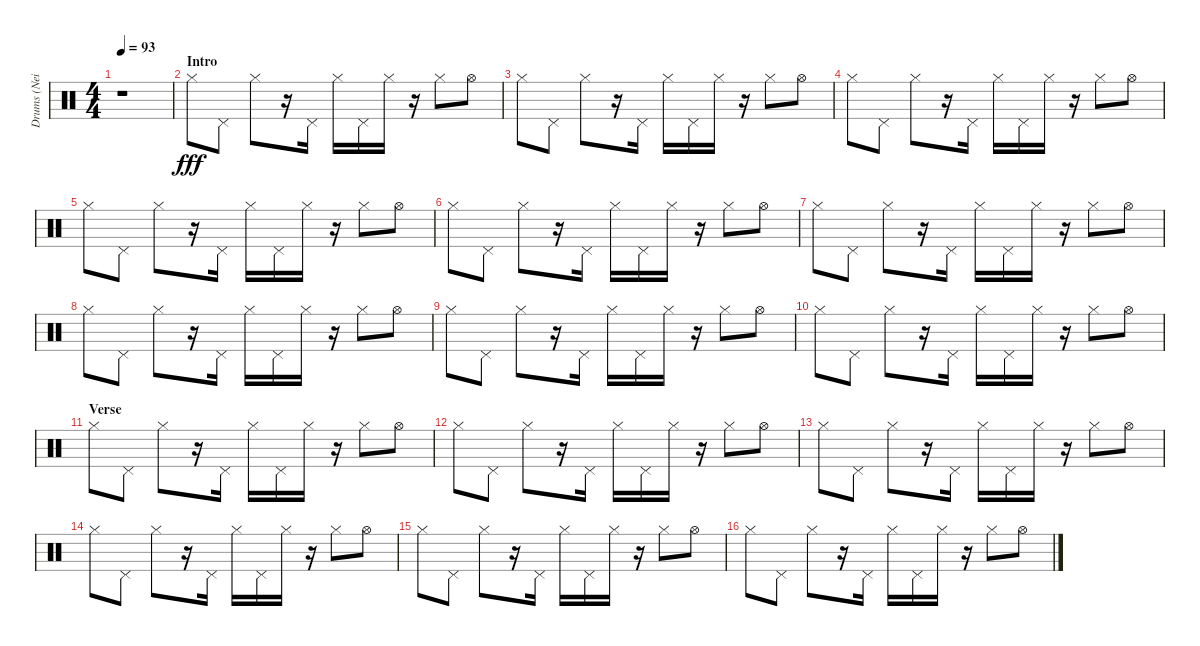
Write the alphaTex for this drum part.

\track ("Drums (Neil)" "Drums (Nei") {instrument percussion}
\staff {score}
\articulation defaults
\ts (4 4)
\tempo 93
\clef neutral
\ks c
r.1{dy fff} |
\section ("" "Intro")
"Hi-Hat (closed)".8 "Pedal Hi-Hat (hit)".8 "Hi-Hat (closed)".8 r.16 "Pedal Hi-Hat (hit)".16 "Hi-Hat (closed)".16 "Pedal Hi-Hat (hit)".16 "Hi-Hat (closed)".16 r.16 "Hi-Hat (closed)".8 "Hi-Hat (open)".8 |
"Hi-Hat (closed)".8 "Pedal Hi-Hat (hit)".8 "Hi-Hat (closed)".8 r.16 "Pedal Hi-Hat (hit)".16 "Hi-Hat (closed)".16 "Pedal Hi-Hat (hit)".16 "Hi-Hat (closed)".16 r.16 "Hi-Hat (closed)".8 "Hi-Hat (open)".8 |
"Hi-Hat (closed)".8 "Pedal Hi-Hat (hit)".8 "Hi-Hat (closed)".8 r.16 "Pedal Hi-Hat (hit)".16 "Hi-Hat (closed)".16 "Pedal Hi-Hat (hit)".16 "Hi-Hat (closed)".16 r.16 "Hi-Hat (closed)".8 "Hi-Hat (open)".8 |
"Hi-Hat (closed)".8 "Pedal Hi-Hat (hit)".8 "Hi-Hat (closed)".8 r.16 "Pedal Hi-Hat (hit)".16 "Hi-Hat (closed)".16 "Pedal Hi-Hat (hit)".16 "Hi-Hat (closed)".16 r.16 "Hi-Hat (closed)".8 "Hi-Hat (open)".8 |
"Hi-Hat (closed)".8 "Pedal Hi-Hat (hit)".8 "Hi-Hat (closed)".8 r.16 "Pedal Hi-Hat (hit)".16 "Hi-Hat (closed)".16 "Pedal Hi-Hat (hit)".16 "Hi-Hat (closed)".16 r.16 "Hi-Hat (closed)".8 "Hi-Hat (open)".8 |
"Hi-Hat (closed)".8 "Pedal Hi-Hat (hit)".8 "Hi-Hat (closed)".8 r.16 "Pedal Hi-Hat (hit)".16 "Hi-Hat (closed)".16 "Pedal Hi-Hat (hit)".16 "Hi-Hat (closed)".16 r.16 "Hi-Hat (closed)".8 "Hi-Hat (open)".8 |
"Hi-Hat (closed)".8 "Pedal Hi-Hat (hit)".8 "Hi-Hat (closed)".8 r.16 "Pedal Hi-Hat (hit)".16 "Hi-Hat (closed)".16 "Pedal Hi-Hat (hit)".16 "Hi-Hat (closed)".16 r.16 "Hi-Hat (closed)".8 "Hi-Hat (open)".8 |
"Hi-Hat (closed)".8 "Pedal Hi-Hat (hit)".8 "Hi-Hat (closed)".8 r.16 "Pedal Hi-Hat (hit)".16 "Hi-Hat (closed)".16 "Pedal Hi-Hat (hit)".16 "Hi-Hat (closed)".16 r.16 "Hi-Hat (closed)".8 "Hi-Hat (open)".8 |
"Hi-Hat (closed)".8 "Pedal Hi-Hat (hit)".8 "Hi-Hat (closed)".8 r.16 "Pedal Hi-Hat (hit)".16 "Hi-Hat (closed)".16 "Pedal Hi-Hat (hit)".16 "Hi-Hat (closed)".16 r.16 "Hi-Hat (closed)".8 "Hi-Hat (open)".8 |
\section ("" "Verse")
"Hi-Hat (closed)".8 "Pedal Hi-Hat (hit)".8 "Hi-Hat (closed)".8 r.16 "Pedal Hi-Hat (hit)".16 "Hi-Hat (closed)".16 "Pedal Hi-Hat (hit)".16 "Hi-Hat (closed)".16 r.16 "Hi-Hat (closed)".8 "Hi-Hat (open)".8 |
"Hi-Hat (closed)".8 "Pedal Hi-Hat (hit)".8 "Hi-Hat (closed)".8 r.16 "Pedal Hi-Hat (hit)".16 "Hi-Hat (closed)".16 "Pedal Hi-Hat (hit)".16 "Hi-Hat (closed)".16 r.16 "Hi-Hat (closed)".8 "Hi-Hat (open)".8 |
"Hi-Hat (closed)".8 "Pedal Hi-Hat (hit)".8 "Hi-Hat (closed)".8 r.16 "Pedal Hi-Hat (hit)".16 "Hi-Hat (closed)".16 "Pedal Hi-Hat (hit)".16 "Hi-Hat (closed)".16 r.16 "Hi-Hat (closed)".8 "Hi-Hat (open)".8 |
"Hi-Hat (closed)".8 "Pedal Hi-Hat (hit)".8 "Hi-Hat (closed)".8 r.16 "Pedal Hi-Hat (hit)".16 "Hi-Hat (closed)".16 "Pedal Hi-Hat (hit)".16 "Hi-Hat (closed)".16 r.16 "Hi-Hat (closed)".8 "Hi-Hat (open)".8 |
"Hi-Hat (closed)".8 "Pedal Hi-Hat (hit)".8 "Hi-Hat (closed)".8 r.16 "Pedal Hi-Hat (hit)".16 "Hi-Hat (closed)".16 "Pedal Hi-Hat (hit)".16 "Hi-Hat (closed)".16 r.16 "Hi-Hat (closed)".8 "Hi-Hat (open)".8 |
"Hi-Hat (closed)".8 "Pedal Hi-Hat (hit)".8 "Hi-Hat (closed)".8 r.16 "Pedal Hi-Hat (hit)".16 "Hi-Hat (closed)".16 "Pedal Hi-Hat (hit)".16 "Hi-Hat (closed)".16 r.16 "Hi-Hat (closed)".8 "Hi-Hat (open)".8
